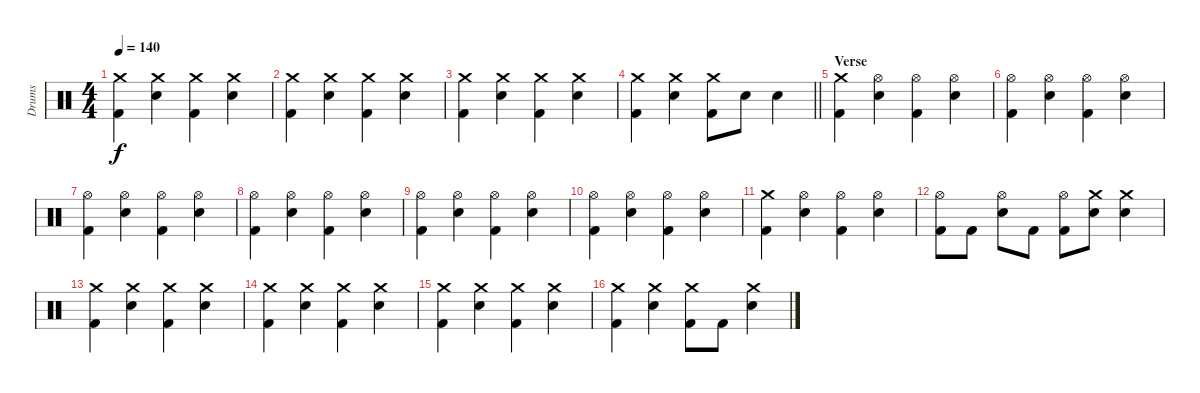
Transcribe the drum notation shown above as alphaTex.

\track ("Drums" "Drums") {instrument percussion}
\staff {score}
\articulation defaults
\ts (4 4)
\tempo 140
\clef neutral
\ks c
("Crash medium (hit)" "Kick (hit) 2").4{dy f} ("Crash medium (hit)" "Snare (hit) 2").4 ("Crash medium (hit)" "Kick (hit) 2").4 ("Crash medium (hit)" "Snare (hit) 2").4 |
("Crash medium (hit)" "Kick (hit) 2").4 ("Crash medium (hit)" "Snare (hit) 2").4 ("Crash medium (hit)" "Kick (hit) 2").4 ("Crash medium (hit)" "Snare (hit) 2").4 |
("Crash medium (hit)" "Kick (hit) 2").4 ("Crash medium (hit)" "Snare (hit) 2").4 ("Crash medium (hit)" "Kick (hit) 2").4 ("Crash medium (hit)" "Snare (hit) 2").4 |
\barLineRight lightlight
("Crash medium (hit)" "Kick (hit) 2").4 ("Crash medium (hit)" "Snare (hit) 2").4 ("Crash medium (hit)" "Kick (hit) 2").8 "Snare (hit) 2".8 "Snare (hit) 2".4 |
\section ("" "Verse")
("Crash medium (hit)" "Kick (hit) 2").4 ("Hi-Hat (open)" "Snare (hit) 2").4 ("Hi-Hat (open)" "Kick (hit) 2").4 ("Hi-Hat (open)" "Snare (hit) 2").4 |
("Hi-Hat (open)" "Kick (hit) 2").4 ("Hi-Hat (open)" "Snare (hit) 2").4 ("Hi-Hat (open)" "Kick (hit) 2").4 ("Hi-Hat (open)" "Snare (hit) 2").4 |
("Hi-Hat (open)" "Kick (hit) 2").4 ("Hi-Hat (open)" "Snare (hit) 2").4 ("Hi-Hat (open)" "Kick (hit) 2").4 ("Hi-Hat (open)" "Snare (hit) 2").4 |
("Hi-Hat (open)" "Kick (hit) 2").4 ("Hi-Hat (open)" "Snare (hit) 2").4 ("Hi-Hat (open)" "Kick (hit) 2").4 ("Hi-Hat (open)" "Snare (hit) 2").4 |
("Hi-Hat (open)" "Kick (hit) 2").4 ("Hi-Hat (open)" "Snare (hit) 2").4 ("Hi-Hat (open)" "Kick (hit) 2").4 ("Hi-Hat (open)" "Snare (hit) 2").4 |
("Hi-Hat (open)" "Kick (hit) 2").4 ("Hi-Hat (open)" "Snare (hit) 2").4 ("Hi-Hat (open)" "Kick (hit) 2").4 ("Hi-Hat (open)" "Snare (hit) 2").4 |
("Crash medium (hit)" "Kick (hit) 2").4 ("Hi-Hat (open)" "Snare (hit) 2").4 ("Hi-Hat (open)" "Kick (hit) 2").4 ("Hi-Hat (open)" "Snare (hit) 2").4 |
("Hi-Hat (open)" "Kick (hit) 2").8 "Kick (hit) 2".8 ("Hi-Hat (open)" "Snare (hit) 2").8 "Kick (hit) 2".8 ("Hi-Hat (open)" "Kick (hit) 2").8 ("Crash medium (hit)" "Snare (hit) 2").8 ("Crash medium (hit)" "Snare (hit) 2").4 |
("Crash medium (hit)" "Kick (hit) 2").4 ("Crash medium (hit)" "Snare (hit) 2").4 ("Crash medium (hit)" "Kick (hit) 2").4 ("Crash medium (hit)" "Snare (hit) 2").4 |
("Crash medium (hit)" "Kick (hit) 2").4 ("Crash medium (hit)" "Snare (hit) 2").4 ("Crash medium (hit)" "Kick (hit) 2").4 ("Crash medium (hit)" "Snare (hit) 2").4 |
("Crash medium (hit)" "Kick (hit) 2").4 ("Crash medium (hit)" "Snare (hit) 2").4 ("Crash medium (hit)" "Kick (hit) 2").4 ("Crash medium (hit)" "Snare (hit) 2").4 |
("Crash medium (hit)" "Kick (hit) 2").4 ("Crash medium (hit)" "Snare (hit) 2").4 ("Crash medium (hit)" "Kick (hit) 2").8 "Kick (hit) 2".8 ("Crash medium (hit)" "Snare (hit) 2").4
